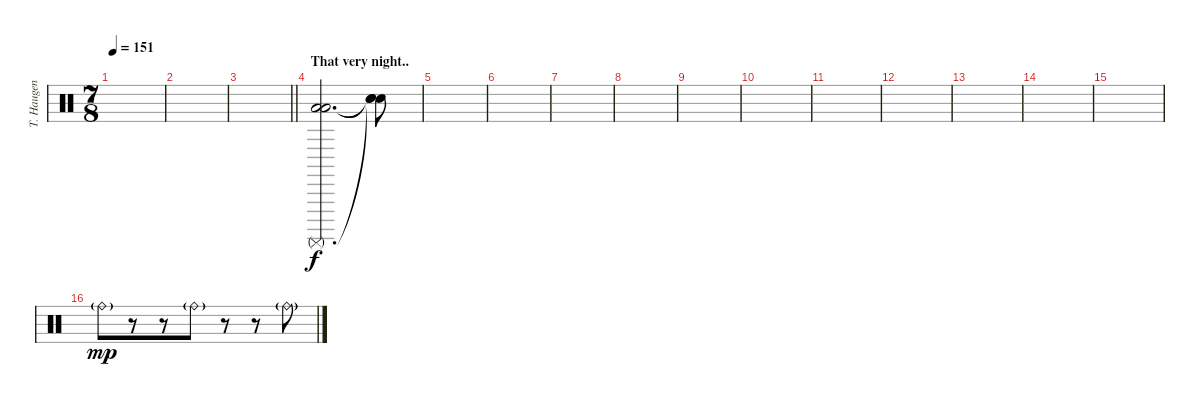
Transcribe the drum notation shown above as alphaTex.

\track ("T. Haugen" "T. Haugen") {instrument percussion}
\staff {score}
\articulation defaults
\ts (7 8)
\tempo 151
\clef neutral
\ks c
|
|
\barLineRight lightlight
|
\section ("" "That very night..")
("Surdo (mute)" "Low Floor Tom (hit)" "Low Floor Tom (hit)").2{d} ("Snare (hit)"{t} "Snare (hit)"{t} "Snare (hit)"{t}).8 |
|
|
|
|
|
|
|
|
|
|
|
"Ride (bell)"{g}.8{dy mp volume 10} r.8 r.8 "Ride (bell)"{g}.8 r.8 r.8 "Ride (bell)"{g}.8
